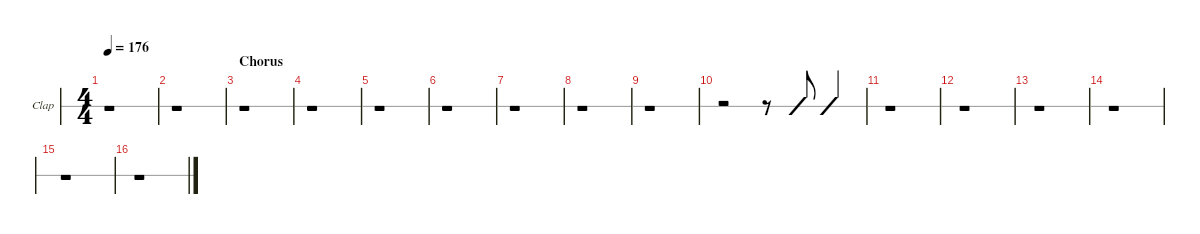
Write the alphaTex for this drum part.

\defaultSystemsLayout 4
\hideDynamics
\bracketExtendMode nobrackets
\firstSystemTrackNameOrientation horizontal
\track ("Clap" "Clap") {defaultSystemsLayout 4 instrument percussion}
\staff {slash}
\articulation defaults
\ts (4 4)
\tempo 176
\clef neutral
\ks a
r.1{dy fff} |
r.1 |
\section ("" "Chorus")
\ks f#
r.1 |
r.1 |
r.1 |
r.1 |
r.1 |
r.1 |
r.1 |
r.2 r.8 "Hand Clap (hit)"{acc forcenatural}.8 "Hand Clap (hit)"{acc forcenatural}.4 |
r.1 |
r.1 |
r.1 |
r.1 |
r.1 |
r.1
